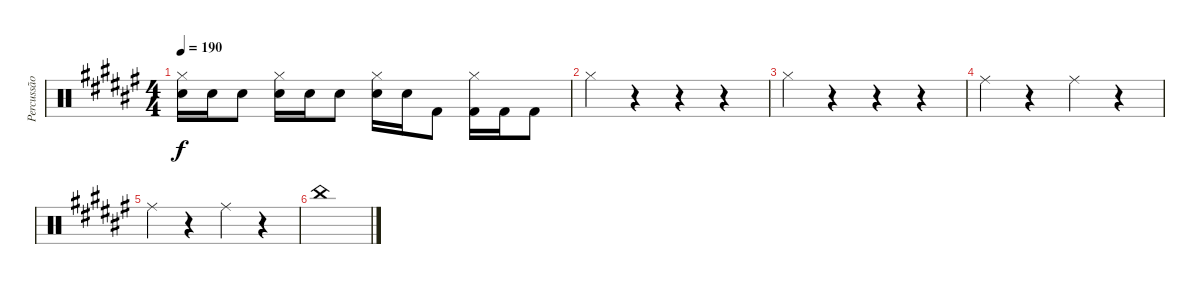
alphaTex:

\track ("Percussão" "Percussão") {instrument percussion}
\staff {score}
\articulation defaults
\ts (4 4)
\tempo 190
\clef neutral
\ks d#minor
("Hi-Hat (closed)" "Snare (hit) 2").16{dy f} "Snare (hit) 2".16 "Snare (hit) 2".8 ("Hi-Hat (closed)" "Snare (hit) 2").16 "Snare (hit) 2".16 "Snare (hit) 2".8 ("Hi-Hat (closed)" "Snare (hit) 2").16 "Snare (hit) 2".16 "Kick (hit) 2".8 ("Hi-Hat (closed)" "Kick (hit) 2").16 "Kick (hit) 2".16 "Kick (hit) 2".8 |
"Hi-Hat (closed)".4 r.4 r.4 r.4 |
"Hi-Hat (closed)".4 r.4 r.4 r.4 |
"Ride (middle)".4 r.4 "Ride (middle)".4 r.4 |
"Ride (middle)".4 r.4 "Ride (middle)".4 r.4 |
"China (hit)".1
